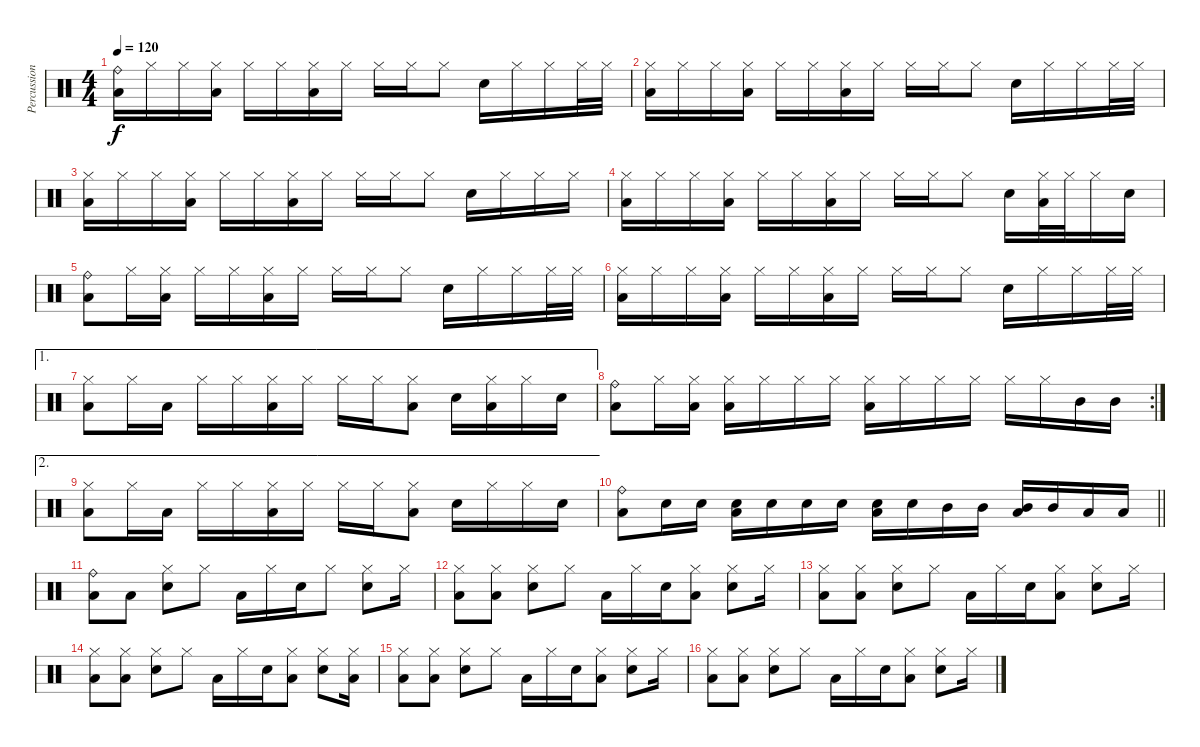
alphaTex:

\track ("Percussion" "Percussion") {instrument percussion}
\staff {score}
\articulation defaults
\ts (4 4)
\tempo 120
\clef neutral
\ks c
("Ride (bell)" "Low Floor Tom (hit)").16{dy f} "Hi-Hat (closed)".16 "Hi-Hat (closed)".16 ("Hi-Hat (closed)" "Low Floor Tom (hit)").16 "Hi-Hat (closed)".16 "Hi-Hat (closed)".16 ("Hi-Hat (closed)" "Low Floor Tom (hit)").16 "Hi-Hat (closed)".16 "Hi-Hat (closed)".16 "Hi-Hat (closed)".16 "Hi-Hat (closed)".8 "Snare (hit) 2".16 "Hi-Hat (closed)".16 "Hi-Hat (closed)".16 "Hi-Hat (closed)".32 "Hi-Hat (closed)".32 |
("Hi-Hat (closed)" "Low Floor Tom (hit)").16 "Hi-Hat (closed)".16 "Hi-Hat (closed)".16 ("Hi-Hat (closed)" "Low Floor Tom (hit)").16 "Hi-Hat (closed)".16 "Hi-Hat (closed)".16 ("Hi-Hat (closed)" "Low Floor Tom (hit)").16 "Hi-Hat (closed)".16 "Hi-Hat (closed)".16 "Hi-Hat (closed)".16 "Hi-Hat (closed)".8 "Snare (hit) 2".16 "Hi-Hat (closed)".16 "Hi-Hat (closed)".16 "Hi-Hat (closed)".32 "Hi-Hat (closed)".32 |
("Hi-Hat (closed)" "Low Floor Tom (hit)").16 "Hi-Hat (closed)".16 "Hi-Hat (closed)".16 ("Hi-Hat (closed)" "Low Floor Tom (hit)").16 "Hi-Hat (closed)".16 "Hi-Hat (closed)".16 ("Hi-Hat (closed)" "Low Floor Tom (hit)").16 "Hi-Hat (closed)".16 "Hi-Hat (closed)".16 "Hi-Hat (closed)".16 "Hi-Hat (closed)".8 "Snare (hit) 2".16 "Hi-Hat (closed)".16 "Hi-Hat (closed)".16 "Hi-Hat (closed)".16 |
("Hi-Hat (closed)" "Low Floor Tom (hit)").16 "Hi-Hat (closed)".16 "Hi-Hat (closed)".16 ("Hi-Hat (closed)" "Low Floor Tom (hit)").16 "Hi-Hat (closed)".16 "Hi-Hat (closed)".16 ("Hi-Hat (closed)" "Low Floor Tom (hit)").16 "Hi-Hat (closed)".16 "Hi-Hat (closed)".16 "Hi-Hat (closed)".16 "Hi-Hat (closed)".8 "Snare (hit) 2".16 ("Hi-Hat (closed)" "Low Floor Tom (hit)").32 "Hi-Hat (closed)".32 "Hi-Hat (closed)".16 "Snare (hit) 2".16 |
("Ride (bell)" "Low Floor Tom (hit)").8 "Hi-Hat (closed)".16 ("Hi-Hat (closed)" "Low Floor Tom (hit)").16 "Hi-Hat (closed)".16 "Hi-Hat (closed)".16 ("Hi-Hat (closed)" "Low Floor Tom (hit)").16 "Hi-Hat (closed)".16 "Hi-Hat (closed)".16 "Hi-Hat (closed)".16 "Hi-Hat (closed)".8 "Snare (hit) 2".16 "Hi-Hat (closed)".16 "Hi-Hat (closed)".16 "Hi-Hat (closed)".32 "Hi-Hat (closed)".32 |
("Hi-Hat (closed)" "Low Floor Tom (hit)").16 "Hi-Hat (closed)".16 "Hi-Hat (closed)".16 ("Hi-Hat (closed)" "Low Floor Tom (hit)").16 "Hi-Hat (closed)".16 "Hi-Hat (closed)".16 ("Hi-Hat (closed)" "Low Floor Tom (hit)").16 "Hi-Hat (closed)".16 "Hi-Hat (closed)".16 "Hi-Hat (closed)".16 "Hi-Hat (closed)".8 "Snare (hit) 2".16 "Hi-Hat (closed)".16 "Hi-Hat (closed)".16 "Hi-Hat (closed)".32 "Hi-Hat (closed)".32 |
\ae 1
("Hi-Hat (closed)" "Low Floor Tom (hit)").8 "Hi-Hat (closed)".16 "Low Floor Tom (hit)".16 "Hi-Hat (closed)".16 "Hi-Hat (closed)".16 ("Hi-Hat (closed)" "Low Floor Tom (hit)").16 "Hi-Hat (closed)".16 "Hi-Hat (closed)".16 "Hi-Hat (closed)".16 ("Hi-Hat (closed)" "Low Floor Tom (hit)").8 "Snare (hit) 2".16 ("Hi-Hat (closed)" "Low Floor Tom (hit)").16 "Hi-Hat (closed)".16 "Snare (hit) 2".16 |
\rc 2
("Ride (bell)" "Low Floor Tom (hit)").8 "Hi-Hat (closed)".16 ("Hi-Hat (closed)" "Low Floor Tom (hit)").16 ("Hi-Hat (closed)" "Low Floor Tom (hit)").16 "Hi-Hat (closed)".16 "Hi-Hat (closed)".16 "Hi-Hat (closed)".16 ("Hi-Hat (closed)" "Low Floor Tom (hit)").16 "Hi-Hat (closed)".16 "Hi-Hat (closed)".16 "Hi-Hat (closed)".16 "Hi-Hat (closed)".16 "Hi-Hat (closed)".16 "Mid Tom (hit)".16 "Mid Tom (hit)".16 |
\ae 2
("Hi-Hat (closed)" "Low Floor Tom (hit)").8 "Hi-Hat (closed)".16 "Low Floor Tom (hit)".16 "Hi-Hat (closed)".16 "Hi-Hat (closed)".16 ("Hi-Hat (closed)" "Low Floor Tom (hit)").16 "Hi-Hat (closed)".16 "Hi-Hat (closed)".16 "Hi-Hat (closed)".16 ("Hi-Hat (closed)" "Low Floor Tom (hit)").8 "Snare (hit) 2".16 "Hi-Hat (closed)".16 "Hi-Hat (closed)".16 "Snare (hit) 2".16 |
\barLineRight lightlight
("Ride (bell)" "Low Floor Tom (hit)").8 "Snare (hit) 2".16 "Snare (hit) 2".16 ("Snare (hit) 2" "Low Floor Tom (hit)").16 "Snare (hit) 2".16 "Snare (hit) 2".16 "Snare (hit) 2".16 ("Snare (hit) 2" "Low Floor Tom (hit)").16 "Snare (hit) 2".16 "Mid Tom (hit)".16 "Mid Tom (hit)".16 ("Mid Tom (hit)" "Low Floor Tom (hit)").16 "Mid Tom (hit)".16 "Low Tom (hit)".16 "Low Tom (hit)".16 |
("Ride (bell)" "Low Floor Tom (hit)").8 "Low Floor Tom (hit)".8 ("Hi-Hat (closed)" "Snare (hit) 2").8 "Hi-Hat (closed)".8 "Low Floor Tom (hit)".16 "Hi-Hat (closed)".16 "Snare (hit) 2".16 "Hi-Hat (closed)".8 ("Hi-Hat (closed)" "Snare (hit) 2").8 "Hi-Hat (closed)".16 |
("Hi-Hat (closed)" "Low Floor Tom (hit)").8 ("Hi-Hat (closed)" "Low Floor Tom (hit)").8 ("Hi-Hat (closed)" "Snare (hit) 2").8 "Hi-Hat (closed)".8 "Low Floor Tom (hit)".16 "Hi-Hat (closed)".16 "Snare (hit) 2".16 ("Hi-Hat (closed)" "Low Floor Tom (hit)").8 ("Hi-Hat (closed)" "Snare (hit) 2").8 "Hi-Hat (closed)".16 |
("Hi-Hat (closed)" "Low Floor Tom (hit)").8 ("Hi-Hat (closed)" "Low Floor Tom (hit)").8 ("Hi-Hat (closed)" "Snare (hit) 2").8 "Hi-Hat (closed)".8 "Low Floor Tom (hit)".16 "Hi-Hat (closed)".16 "Snare (hit) 2".16 ("Hi-Hat (closed)" "Low Floor Tom (hit)").8 ("Hi-Hat (closed)" "Snare (hit) 2").8 "Hi-Hat (closed)".16 |
("Hi-Hat (closed)" "Low Floor Tom (hit)").8 ("Hi-Hat (closed)" "Low Floor Tom (hit)").8 ("Hi-Hat (closed)" "Snare (hit) 2").8 "Hi-Hat (closed)".8 "Low Floor Tom (hit)".16 "Hi-Hat (closed)".16 "Snare (hit) 2".16 ("Hi-Hat (closed)" "Low Floor Tom (hit)").8 ("Hi-Hat (closed)" "Snare (hit) 2").8 ("Hi-Hat (closed)" "Low Floor Tom (hit)").16 |
("Hi-Hat (closed)" "Low Floor Tom (hit)").8 ("Hi-Hat (closed)" "Low Floor Tom (hit)").8 ("Hi-Hat (closed)" "Snare (hit) 2").8 "Hi-Hat (closed)".8 "Low Floor Tom (hit)".16 "Hi-Hat (closed)".16 "Snare (hit) 2".16 ("Hi-Hat (closed)" "Low Floor Tom (hit)").8 ("Hi-Hat (closed)" "Snare (hit) 2").8 "Hi-Hat (closed)".16 |
("Hi-Hat (closed)" "Low Floor Tom (hit)").8 ("Hi-Hat (closed)" "Low Floor Tom (hit)").8 ("Hi-Hat (closed)" "Snare (hit) 2").8 "Hi-Hat (closed)".8 "Low Floor Tom (hit)".16 "Hi-Hat (closed)".16 "Snare (hit) 2".16 ("Hi-Hat (closed)" "Low Floor Tom (hit)").8 ("Hi-Hat (closed)" "Snare (hit) 2").8 "Hi-Hat (closed)".16
